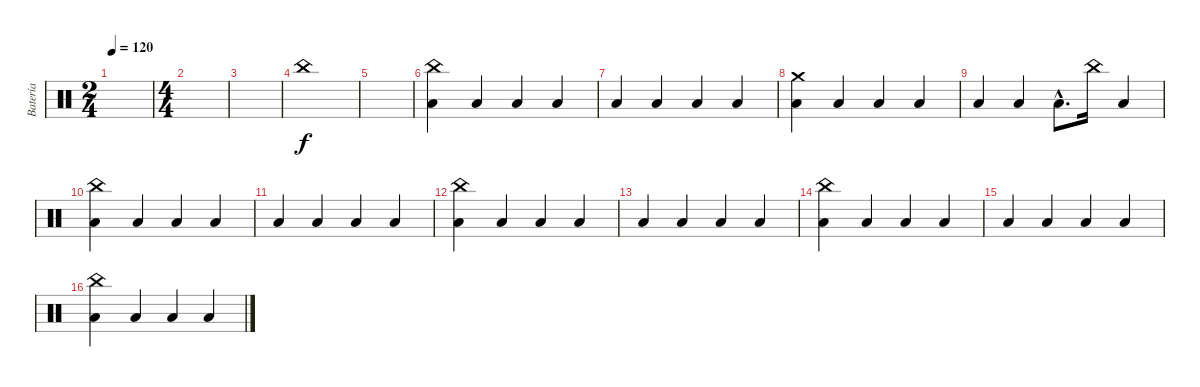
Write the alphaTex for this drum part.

\track ("Batería" "Batería") {instrument percussion}
\staff {score}
\articulation defaults
\ts (2 4)
\tempo 120
\clef neutral
\ks c
|
\ts (4 4)
|
|
"China (hit)".1 |
|
("China (hit)" "Low Tom (hit)").4 "Low Tom (hit)".4 "Low Tom (hit)".4 "Low Tom (hit)".4 |
"Low Tom (hit)".4 "Low Tom (hit)".4 "Low Tom (hit)".4 "Low Tom (hit)".4 |
("Crash medium (hit)" "Low Tom (hit)").4 "Low Tom (hit)".4 "Low Tom (hit)".4 "Low Tom (hit)".4 |
"Low Tom (hit)".4 "Low Tom (hit)".4 "Low Tom (hit)"{hac}.8{d} "China (hit)".16 "Low Tom (hit)".4 |
("China (hit)" "Low Tom (hit)").4 "Low Tom (hit)".4 "Low Tom (hit)".4 "Low Tom (hit)".4 |
"Low Tom (hit)".4 "Low Tom (hit)".4 "Low Tom (hit)".4 "Low Tom (hit)".4 |
("China (hit)" "Low Tom (hit)").4 "Low Tom (hit)".4 "Low Tom (hit)".4 "Low Tom (hit)".4 |
"Low Tom (hit)".4 "Low Tom (hit)".4 "Low Tom (hit)".4 "Low Tom (hit)".4 |
("China (hit)" "Low Tom (hit)").4 "Low Tom (hit)".4 "Low Tom (hit)".4 "Low Tom (hit)".4 |
"Low Tom (hit)".4 "Low Tom (hit)".4 "Low Tom (hit)".4 "Low Tom (hit)".4 |
("China (hit)" "Low Tom (hit)").4 "Low Tom (hit)".4 "Low Tom (hit)".4 "Low Tom (hit)".4
